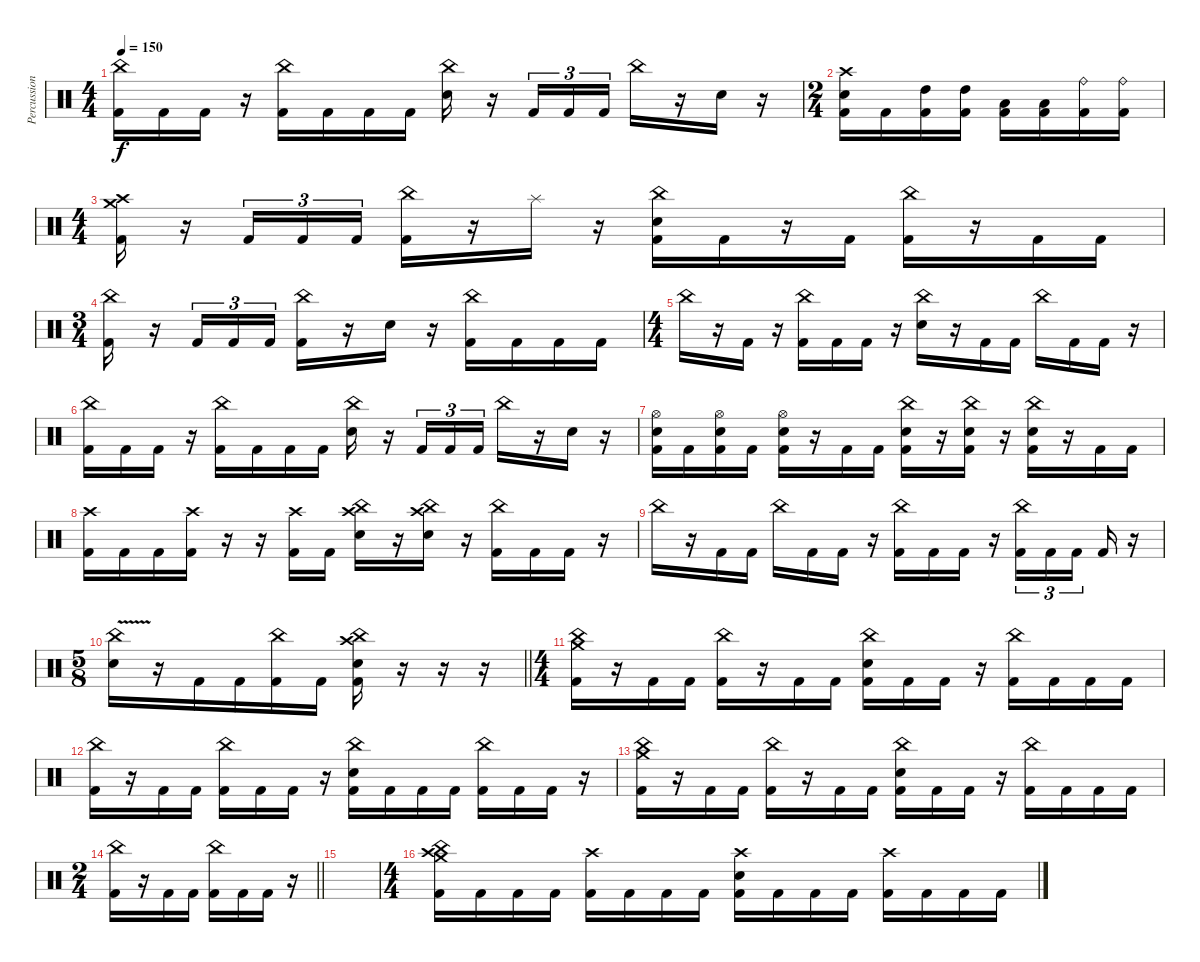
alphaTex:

\track ("Percussion" "Percussion") {instrument percussion}
\staff {score}
\articulation defaults
\ts (4 4)
\tempo 150
\clef neutral
\ks c
("China (hit)" "Kick (hit) 2").16{dy f} "Kick (hit) 2".16 "Kick (hit) 2".16 r.16 ("China (hit)" "Kick (hit) 2").16 "Kick (hit) 2".16 "Kick (hit) 2".16 "Kick (hit) 2".16 ("China (hit)" "Electric Snare (hit)").16 r.16 "Kick (hit) 2".16{tu (3 2)} "Kick (hit) 2".16{tu (3 2)} "Kick (hit) 2".16{tu (3 2)} "China (hit)".16 r.16 "Electric Snare (hit)".16 r.16 |
\ts (2 4)
("Crash high (hit)" "Electric Snare (hit)" "Kick (hit) 2").16 "Kick (hit) 2".16 ("High Tom (hit)" "Kick (hit) 2").16 ("High Tom (hit)" "Kick (hit) 2").16 ("Low Tom (hit)" "Kick (hit) 2").16 ("Low Tom (hit)" "Kick (hit) 2").16 ("Ride (bell)" "Kick (hit) 2").16 ("Ride (bell)" "Kick (hit) 2").16 |
\ts (4 4)
("Crash high (hit)" "Crash medium (hit)" "Kick (hit) 2").16 r.16 "Kick (hit) 2".16{tu (3 2)} "Kick (hit) 2".16{tu (3 2)} "Kick (hit) 2".16{tu (3 2)} ("China (hit)" "Kick (hit) 2").16 r.16 "Splash (hit)".16 r.16 ("China (hit)" "Electric Snare (hit)" "Kick (hit) 2").16 "Kick (hit) 2".16 r.16 "Kick (hit) 2".16 ("China (hit)" "Kick (hit) 2").16 r.16 "Kick (hit) 2".16 "Kick (hit) 2".16 |
\ts (3 4)
("China (hit)" "Kick (hit) 2").16 r.16 "Kick (hit) 2".16{tu (3 2)} "Kick (hit) 2".16{tu (3 2)} "Kick (hit) 2".16{tu (3 2)} ("China (hit)" "Kick (hit) 2").16 r.16 "Electric Snare (hit)".16 r.16 ("China (hit)" "Kick (hit) 2").16 "Kick (hit) 2".16 "Kick (hit) 2".16 "Kick (hit) 2".16 |
\ts (4 4)
"China (hit)".16 r.16 "Kick (hit) 2".16 r.16 ("China (hit)" "Kick (hit) 2").16 "Kick (hit) 2".16 "Kick (hit) 2".16 r.16 ("China (hit)" "Electric Snare (hit)").16 r.16 "Kick (hit) 2".16 "Kick (hit) 2".16 "China (hit)".16 "Kick (hit) 2".16 "Kick (hit) 2".16 r.16 |
("China (hit)" "Kick (hit) 2").16 "Kick (hit) 2".16 "Kick (hit) 2".16 r.16 ("China (hit)" "Kick (hit) 2").16 "Kick (hit) 2".16 "Kick (hit) 2".16 "Kick (hit) 2".16 ("China (hit)" "Electric Snare (hit)").16 r.16 "Kick (hit) 2".16{tu (3 2)} "Kick (hit) 2".16{tu (3 2)} "Kick (hit) 2".16{tu (3 2)} "China (hit)".16 r.16 "Electric Snare (hit)".16 r.16 |
("Hi-Hat (open)" "Electric Snare (hit)" "Kick (hit) 2").16 "Kick (hit) 2".16 ("Hi-Hat (open)" "Electric Snare (hit)" "Kick (hit) 2").16 "Kick (hit) 2".16 ("Hi-Hat (open)" "Electric Snare (hit)" "Kick (hit) 2").16 r.16 "Kick (hit) 2".16 "Kick (hit) 2".16 ("China (hit)" "Electric Snare (hit)" "Kick (hit) 2").16 r.16 ("China (hit)" "Electric Snare (hit)" "Kick (hit) 2").16 r.16 ("China (hit)" "Electric Snare (hit)" "Kick (hit) 2").16 r.16 "Kick (hit) 2".16 "Kick (hit) 2".16 |
("Crash high (hit)" "Kick (hit) 2").16 "Kick (hit) 2".16 "Kick (hit) 2".16 ("Crash high (hit)" "Kick (hit) 2").16 r.16 r.16 ("Crash high (hit)" "Kick (hit) 2").16 "Kick (hit) 2".16 ("Crash high (hit)" "China (hit)" "Electric Snare (hit)").16 r.16 ("Crash high (hit)" "China (hit)" "Electric Snare (hit)").16 r.16 ("China (hit)" "Kick (hit) 2").16 "Kick (hit) 2".16 "Kick (hit) 2".16 r.16 |
"China (hit)".16 r.16 "Kick (hit) 2".16 "Kick (hit) 2".16 "China (hit)".16 "Kick (hit) 2".16 "Kick (hit) 2".16 r.16 ("China (hit)" "Kick (hit) 2").16 "Kick (hit) 2".16 "Kick (hit) 2".16 r.16 ("China (hit)" "Kick (hit) 2").16{tu (3 2)} "Kick (hit) 2".16{tu (3 2)} "Kick (hit) 2".16{tu (3 2) beam splitsecondary} "Kick (hit) 2".16 r.16 |
\ts (5 8)
\barLineRight lightlight
("China (hit)"{v} "Electric Snare (hit)").16 r.16 "Kick (hit) 2".16 "Kick (hit) 2".16 ("China (hit)" "Kick (hit) 2").16 "Kick (hit) 2".16 ("China (hit)" "Crash high (hit)" "Electric Snare (hit)" "Kick (hit) 2").16 r.16 r.16 r.16 |
\ts (4 4)
("China (hit)" "Crash medium (hit)" "Kick (hit) 2").16 r.16 "Kick (hit) 2".16 "Kick (hit) 2".16 ("China (hit)" "Kick (hit) 2").16 r.16 "Kick (hit) 2".16 "Kick (hit) 2".16 ("China (hit)" "Electric Snare (hit)" "Kick (hit) 2").16 "Kick (hit) 2".16 "Kick (hit) 2".16 r.16 ("China (hit)" "Kick (hit) 2").16 "Kick (hit) 2".16 "Kick (hit) 2".16 "Kick (hit) 2".16 |
("China (hit)" "Kick (hit) 2").16 r.16 "Kick (hit) 2".16 "Kick (hit) 2".16 ("China (hit)" "Kick (hit) 2").16 "Kick (hit) 2".16 "Kick (hit) 2".16 r.16 ("China (hit)" "Electric Snare (hit)" "Kick (hit) 2").16 "Kick (hit) 2".16 "Kick (hit) 2".16 "Kick (hit) 2".16 ("China (hit)" "Kick (hit) 2").16 "Kick (hit) 2".16 "Kick (hit) 2".16 r.16 |
("China (hit)" "Crash medium (hit)" "Kick (hit) 2").16 r.16 "Kick (hit) 2".16 "Kick (hit) 2".16 ("China (hit)" "Kick (hit) 2").16 r.16 "Kick (hit) 2".16 "Kick (hit) 2".16 ("China (hit)" "Electric Snare (hit)" "Kick (hit) 2").16 "Kick (hit) 2".16 "Kick (hit) 2".16 r.16 ("China (hit)" "Kick (hit) 2").16 "Kick (hit) 2".16 "Kick (hit) 2".16 "Kick (hit) 2".16 |
\ts (2 4)
\barLineRight lightlight
("China (hit)" "Kick (hit) 2").16 r.16 "Kick (hit) 2".16 "Kick (hit) 2".16 ("China (hit)" "Kick (hit) 2").16 "Kick (hit) 2".16 "Kick (hit) 2".16 r.16 |
|
\ts (4 4)
("Crash high (hit)" "China (hit)" "Crash medium (hit)" "Kick (hit) 2").16 "Kick (hit) 2".16 "Kick (hit) 2".16 "Kick (hit) 2".16 ("Crash high (hit)" "Kick (hit) 2").16 "Kick (hit) 2".16 "Kick (hit) 2".16 "Kick (hit) 2".16 ("Crash high (hit)" "Electric Snare (hit)" "Kick (hit) 2").16 "Kick (hit) 2".16 "Kick (hit) 2".16 "Kick (hit) 2".16 ("Crash high (hit)" "Kick (hit) 2").16 "Kick (hit) 2".16 "Kick (hit) 2".16 "Kick (hit) 2".16
